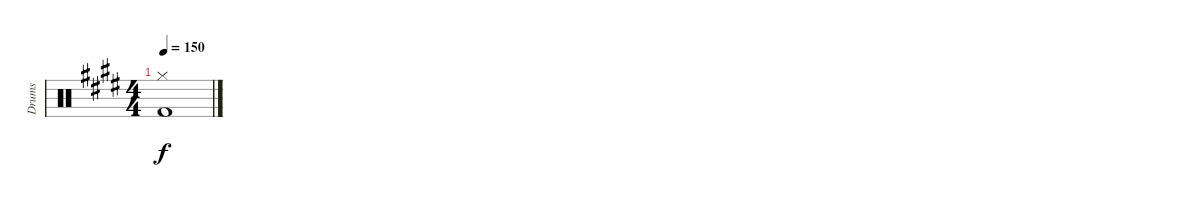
\track ("Drums" "Drums") {instrument percussion}
\staff {score}
\articulation defaults
\ts (4 4)
\tempo 150
\clef neutral
\ks e
("Hi-Hat (closed)" "Kick (hit) 2").1{dy f}
